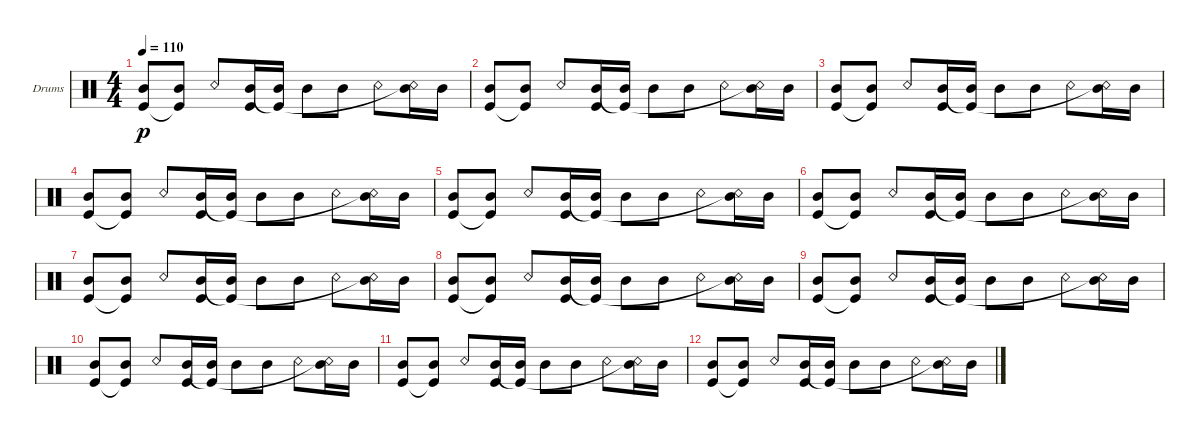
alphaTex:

\defaultSystemsLayout 4
\bracketExtendMode groupsimilarinstruments
\firstSystemTrackNameOrientation horizontal
\otherSystemsTrackNameOrientation horizontal
\track ("Drumkit" "Drums") {instrument percussion}
\staff {score}
\articulation defaults
\ts (4 4)
\tempo 110
\clef neutral
\scale
0.333333
\ks c
("Mid Tom (hit)" "Kick (hit)").8{dy p} ("Mid Tom (hit)" "Kick (hit)"{t}).8 "Snare (rim shot)".8 ("Kick (hit)" "Mid Tom (hit)").16 ("Mid Tom (hit)" "Kick (hit)"{t}).16 "Mid Tom (hit)".8 "Mid Tom (hit)".8 "Snare (rim shot)".8 ("Mid Tom (hit)" "Snare (rim shot)"{t}).16 "Mid Tom (hit)".16 |
\scale
0.333333 ("Mid Tom (hit)" "Kick (hit)").8 ("Mid Tom (hit)" "Kick (hit)"{t}).8 "Snare (rim shot)".8 ("Kick (hit)" "Mid Tom (hit)").16 ("Mid Tom (hit)" "Kick (hit)"{t}).16 "Mid Tom (hit)".8 "Mid Tom (hit)".8 "Snare (rim shot)".8 ("Mid Tom (hit)" "Snare (rim shot)"{t}).16 "Mid Tom (hit)".16 |
\scale
0.333333 ("Mid Tom (hit)" "Kick (hit)").8 ("Mid Tom (hit)" "Kick (hit)"{t}).8 "Snare (rim shot)".8 ("Kick (hit)" "Mid Tom (hit)").16 ("Mid Tom (hit)" "Kick (hit)"{t}).16 "Mid Tom (hit)".8 "Mid Tom (hit)".8 "Snare (rim shot)".8 ("Mid Tom (hit)" "Snare (rim shot)"{t}).16 "Mid Tom (hit)".16 |
\scale
0.333333 ("Mid Tom (hit)" "Kick (hit)").8 ("Mid Tom (hit)" "Kick (hit)"{t}).8 "Snare (rim shot)".8 ("Kick (hit)" "Mid Tom (hit)").16 ("Mid Tom (hit)" "Kick (hit)"{t}).16 "Mid Tom (hit)".8 "Mid Tom (hit)".8 "Snare (rim shot)".8 ("Mid Tom (hit)" "Snare (rim shot)"{t}).16 "Mid Tom (hit)".16 |
\scale
0.333333 ("Mid Tom (hit)" "Kick (hit)").8 ("Mid Tom (hit)" "Kick (hit)"{t}).8 "Snare (rim shot)".8 ("Kick (hit)" "Mid Tom (hit)").16 ("Mid Tom (hit)" "Kick (hit)"{t}).16 "Mid Tom (hit)".8 "Mid Tom (hit)".8 "Snare (rim shot)".8 ("Mid Tom (hit)" "Snare (rim shot)"{t}).16 "Mid Tom (hit)".16 |
\scale
0.333333 ("Mid Tom (hit)" "Kick (hit)").8 ("Mid Tom (hit)" "Kick (hit)"{t}).8 "Snare (rim shot)".8 ("Kick (hit)" "Mid Tom (hit)").16 ("Mid Tom (hit)" "Kick (hit)"{t}).16 "Mid Tom (hit)".8 "Mid Tom (hit)".8 "Snare (rim shot)".8 ("Mid Tom (hit)" "Snare (rim shot)"{t}).16 "Mid Tom (hit)".16 |
\scale
0.333333 ("Mid Tom (hit)" "Kick (hit)").8 ("Mid Tom (hit)" "Kick (hit)"{t}).8 "Snare (rim shot)".8 ("Kick (hit)" "Mid Tom (hit)").16 ("Mid Tom (hit)" "Kick (hit)"{t}).16 "Mid Tom (hit)".8 "Mid Tom (hit)".8 "Snare (rim shot)".8 ("Mid Tom (hit)" "Snare (rim shot)"{t}).16 "Mid Tom (hit)".16 |
\scale
0.333333 ("Mid Tom (hit)" "Kick (hit)").8 ("Mid Tom (hit)" "Kick (hit)"{t}).8 "Snare (rim shot)".8 ("Kick (hit)" "Mid Tom (hit)").16 ("Mid Tom (hit)" "Kick (hit)"{t}).16 "Mid Tom (hit)".8 "Mid Tom (hit)".8 "Snare (rim shot)".8 ("Mid Tom (hit)" "Snare (rim shot)"{t}).16 "Mid Tom (hit)".16 |
\scale
0.333333 ("Mid Tom (hit)" "Kick (hit)").8 ("Mid Tom (hit)" "Kick (hit)"{t}).8 "Snare (rim shot)".8 ("Kick (hit)" "Mid Tom (hit)").16 ("Mid Tom (hit)" "Kick (hit)"{t}).16 "Mid Tom (hit)".8 "Mid Tom (hit)".8 "Snare (rim shot)".8 ("Mid Tom (hit)" "Snare (rim shot)"{t}).16 "Mid Tom (hit)".16 |
\scale
0.333333 ("Mid Tom (hit)" "Kick (hit)").8 ("Mid Tom (hit)" "Kick (hit)"{t}).8 "Snare (rim shot)".8 ("Kick (hit)" "Mid Tom (hit)").16 ("Mid Tom (hit)" "Kick (hit)"{t}).16 "Mid Tom (hit)".8 "Mid Tom (hit)".8 "Snare (rim shot)".8 ("Mid Tom (hit)" "Snare (rim shot)"{t}).16 "Mid Tom (hit)".16 |
\scale
0.333333 ("Mid Tom (hit)" "Kick (hit)").8 ("Mid Tom (hit)" "Kick (hit)"{t}).8 "Snare (rim shot)".8 ("Kick (hit)" "Mid Tom (hit)").16 ("Mid Tom (hit)" "Kick (hit)"{t}).16 "Mid Tom (hit)".8 "Mid Tom (hit)".8 "Snare (rim shot)".8 ("Mid Tom (hit)" "Snare (rim shot)"{t}).16 "Mid Tom (hit)".16 |
\scale
0.333333 ("Mid Tom (hit)" "Kick (hit)").8 ("Mid Tom (hit)" "Kick (hit)"{t}).8 "Snare (rim shot)".8 ("Kick (hit)" "Mid Tom (hit)").16 ("Mid Tom (hit)" "Kick (hit)"{t}).16 "Mid Tom (hit)".8 "Mid Tom (hit)".8 "Snare (rim shot)".8 ("Mid Tom (hit)" "Snare (rim shot)"{t}).16 "Mid Tom (hit)".16
